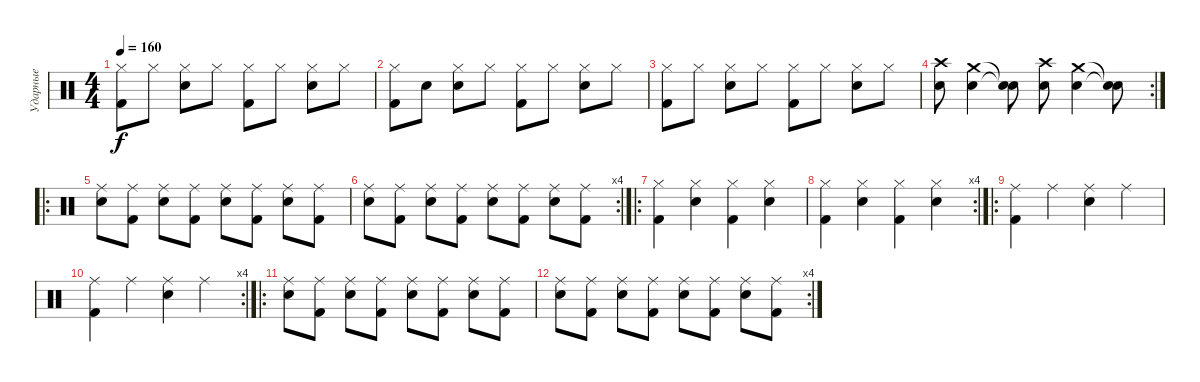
\track ("Ударные" "Ударные") {instrument percussion}
\staff {score}
\articulation defaults
\ts (4 4)
\tempo 160
\clef neutral
\ks c
("Hi-Hat (closed)" "Kick (hit) 2").8{dy f} "Hi-Hat (closed)".8 ("Hi-Hat (closed)" "Electric Snare (hit)").8 "Hi-Hat (closed)".8 ("Hi-Hat (closed)" "Kick (hit) 2").8 "Hi-Hat (closed)".8 ("Hi-Hat (closed)" "Electric Snare (hit)").8 "Hi-Hat (closed)".8 |
("Hi-Hat (closed)" "Kick (hit) 2").8 "Snare (hit)".8 ("Hi-Hat (closed)" "Electric Snare (hit)").8 "Hi-Hat (closed)".8 ("Hi-Hat (closed)" "Kick (hit) 2").8 "Hi-Hat (closed)".8 ("Hi-Hat (closed)" "Electric Snare (hit)").8 "Hi-Hat (closed)".8 |
("Hi-Hat (closed)" "Kick (hit) 2").8 "Hi-Hat (closed)".8 ("Hi-Hat (closed)" "Electric Snare (hit)").8 "Hi-Hat (closed)".8 ("Hi-Hat (closed)" "Kick (hit) 2").8 "Hi-Hat (closed)".8 ("Hi-Hat (closed)" "Electric Snare (hit)").8 "Hi-Hat (closed)".8 |
\rc 2
("Crash high (hit)" "Electric Snare (hit)").8 ("Crash medium (hit)" "Electric Snare (hit)").4 ("Snare (hit)"{t} "Snare (hit)"{t}).8 ("Crash high (hit)" "Electric Snare (hit)").8 ("Crash medium (hit)" "Electric Snare (hit)").4 ("Snare (hit)"{t} "Snare (hit)"{t}).8 |
\ro
("Ride (middle)" "Electric Snare (hit)").8 ("Ride (middle)" "Kick (hit) 2").8 ("Ride (middle)" "Electric Snare (hit)").8 ("Ride (middle)" "Kick (hit) 2").8 ("Ride (middle)" "Electric Snare (hit)").8 ("Ride (middle)" "Kick (hit) 2").8 ("Ride (middle)" "Electric Snare (hit)").8 ("Ride (middle)" "Kick (hit) 2").8 |
\rc 4
("Ride (middle)" "Electric Snare (hit)").8 ("Ride (middle)" "Kick (hit) 2").8 ("Ride (middle)" "Electric Snare (hit)").8 ("Ride (middle)" "Kick (hit) 2").8 ("Ride (middle)" "Electric Snare (hit)").8 ("Ride (middle)" "Kick (hit) 2").8 ("Ride (middle)" "Electric Snare (hit)").8 ("Ride (middle)" "Kick (hit) 2").8 |
\ro
("Hi-Hat (closed)" "Kick (hit) 2").4 ("Hi-Hat (closed)" "Electric Snare (hit)").4 ("Hi-Hat (closed)" "Kick (hit) 2").4 ("Hi-Hat (closed)" "Electric Snare (hit)").4 |
\rc 4
("Hi-Hat (closed)" "Kick (hit) 2").4 ("Hi-Hat (closed)" "Electric Snare (hit)").4 ("Hi-Hat (closed)" "Kick (hit) 2").4 ("Hi-Hat (closed)" "Electric Snare (hit)").4 |
\ro
("Ride (middle)" "Kick (hit) 2").4 "Ride (middle)".4 ("Ride (middle)" "Electric Snare (hit)").4 "Ride (middle)".4 |
\rc 4
("Ride (middle)" "Kick (hit) 2").4 "Ride (middle)".4 ("Ride (middle)" "Electric Snare (hit)").4 "Ride (middle)".4 |
\ro
("Ride (middle)" "Electric Snare (hit)").8 ("Ride (middle)" "Kick (hit) 2").8 ("Ride (middle)" "Electric Snare (hit)").8 ("Ride (middle)" "Kick (hit) 2").8 ("Ride (middle)" "Electric Snare (hit)").8 ("Ride (middle)" "Kick (hit) 2").8 ("Ride (middle)" "Electric Snare (hit)").8 ("Ride (middle)" "Kick (hit) 2").8 |
\rc 4
("Ride (middle)" "Electric Snare (hit)").8 ("Ride (middle)" "Kick (hit) 2").8 ("Ride (middle)" "Electric Snare (hit)").8 ("Ride (middle)" "Kick (hit) 2").8 ("Ride (middle)" "Electric Snare (hit)").8 ("Ride (middle)" "Kick (hit) 2").8 ("Ride (middle)" "Electric Snare (hit)").8 ("Ride (middle)" "Kick (hit) 2").8
